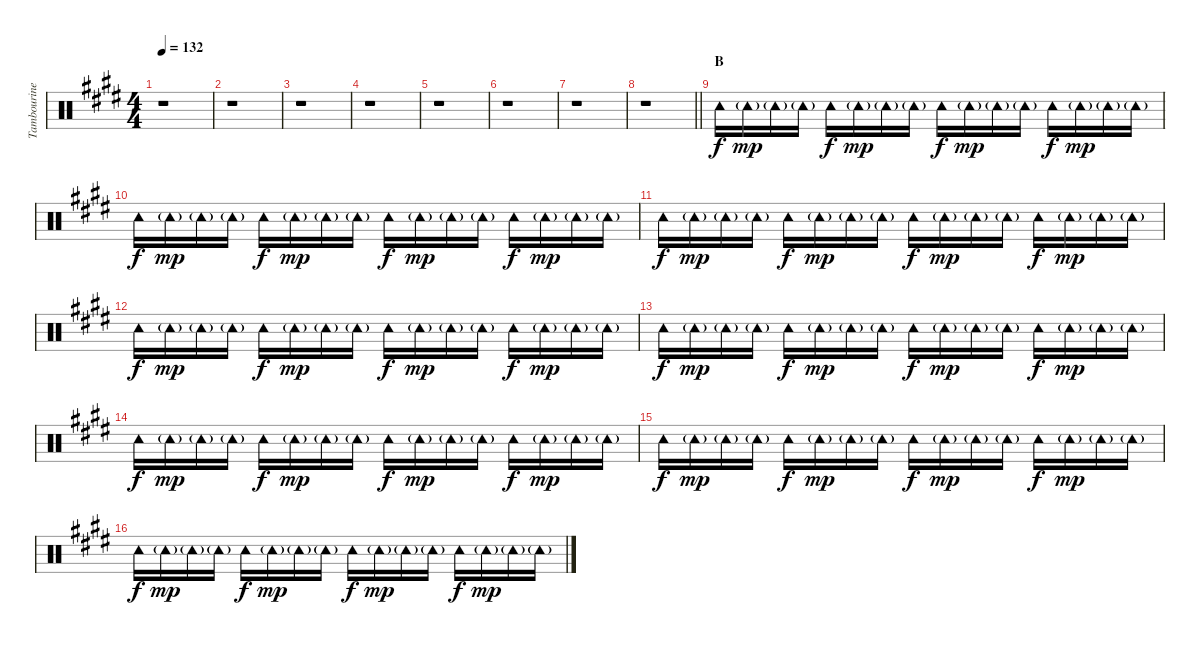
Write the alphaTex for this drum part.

\track ("Tambourine" "Tambourine") {instrument percussion}
\staff {score}
\articulation defaults
\ts (4 4)
\tempo 132
\clef neutral
\ks e
r.1{dy f} |
r.1 |
r.1 |
r.1 |
r.1 |
r.1 |
r.1 |
\barLineRight lightlight
r.1 |
\section ("" "B")
"Tambourine (hit)".16 "Tambourine (hit)"{g}.16{dy mp} "Tambourine (hit)"{g}.16 "Tambourine (hit)"{g}.16 "Tambourine (hit)".16{dy f} "Tambourine (hit)"{g}.16{dy mp} "Tambourine (hit)"{g}.16 "Tambourine (hit)"{g}.16 "Tambourine (hit)".16{dy f} "Tambourine (hit)"{g}.16{dy mp} "Tambourine (hit)"{g}.16 "Tambourine (hit)"{g}.16 "Tambourine (hit)".16{dy f} "Tambourine (hit)"{g}.16{dy mp} "Tambourine (hit)"{g}.16 "Tambourine (hit)"{g}.16 |
"Tambourine (hit)".16{dy f} "Tambourine (hit)"{g}.16{dy mp} "Tambourine (hit)"{g}.16 "Tambourine (hit)"{g}.16 "Tambourine (hit)".16{dy f} "Tambourine (hit)"{g}.16{dy mp} "Tambourine (hit)"{g}.16 "Tambourine (hit)"{g}.16 "Tambourine (hit)".16{dy f} "Tambourine (hit)"{g}.16{dy mp} "Tambourine (hit)"{g}.16 "Tambourine (hit)"{g}.16 "Tambourine (hit)".16{dy f} "Tambourine (hit)"{g}.16{dy mp} "Tambourine (hit)"{g}.16 "Tambourine (hit)"{g}.16 |
"Tambourine (hit)".16{dy f} "Tambourine (hit)"{g}.16{dy mp} "Tambourine (hit)"{g}.16 "Tambourine (hit)"{g}.16 "Tambourine (hit)".16{dy f} "Tambourine (hit)"{g}.16{dy mp} "Tambourine (hit)"{g}.16 "Tambourine (hit)"{g}.16 "Tambourine (hit)".16{dy f} "Tambourine (hit)"{g}.16{dy mp} "Tambourine (hit)"{g}.16 "Tambourine (hit)"{g}.16 "Tambourine (hit)".16{dy f} "Tambourine (hit)"{g}.16{dy mp} "Tambourine (hit)"{g}.16 "Tambourine (hit)"{g}.16 |
"Tambourine (hit)".16{dy f} "Tambourine (hit)"{g}.16{dy mp} "Tambourine (hit)"{g}.16 "Tambourine (hit)"{g}.16 "Tambourine (hit)".16{dy f} "Tambourine (hit)"{g}.16{dy mp} "Tambourine (hit)"{g}.16 "Tambourine (hit)"{g}.16 "Tambourine (hit)".16{dy f} "Tambourine (hit)"{g}.16{dy mp} "Tambourine (hit)"{g}.16 "Tambourine (hit)"{g}.16 "Tambourine (hit)".16{dy f} "Tambourine (hit)"{g}.16{dy mp} "Tambourine (hit)"{g}.16 "Tambourine (hit)"{g}.16 |
"Tambourine (hit)".16{dy f} "Tambourine (hit)"{g}.16{dy mp} "Tambourine (hit)"{g}.16 "Tambourine (hit)"{g}.16 "Tambourine (hit)".16{dy f} "Tambourine (hit)"{g}.16{dy mp} "Tambourine (hit)"{g}.16 "Tambourine (hit)"{g}.16 "Tambourine (hit)".16{dy f} "Tambourine (hit)"{g}.16{dy mp} "Tambourine (hit)"{g}.16 "Tambourine (hit)"{g}.16 "Tambourine (hit)".16{dy f} "Tambourine (hit)"{g}.16{dy mp} "Tambourine (hit)"{g}.16 "Tambourine (hit)"{g}.16 |
"Tambourine (hit)".16{dy f} "Tambourine (hit)"{g}.16{dy mp} "Tambourine (hit)"{g}.16 "Tambourine (hit)"{g}.16 "Tambourine (hit)".16{dy f} "Tambourine (hit)"{g}.16{dy mp} "Tambourine (hit)"{g}.16 "Tambourine (hit)"{g}.16 "Tambourine (hit)".16{dy f} "Tambourine (hit)"{g}.16{dy mp} "Tambourine (hit)"{g}.16 "Tambourine (hit)"{g}.16 "Tambourine (hit)".16{dy f} "Tambourine (hit)"{g}.16{dy mp} "Tambourine (hit)"{g}.16 "Tambourine (hit)"{g}.16 |
"Tambourine (hit)".16{dy f} "Tambourine (hit)"{g}.16{dy mp} "Tambourine (hit)"{g}.16 "Tambourine (hit)"{g}.16 "Tambourine (hit)".16{dy f} "Tambourine (hit)"{g}.16{dy mp} "Tambourine (hit)"{g}.16 "Tambourine (hit)"{g}.16 "Tambourine (hit)".16{dy f} "Tambourine (hit)"{g}.16{dy mp} "Tambourine (hit)"{g}.16 "Tambourine (hit)"{g}.16 "Tambourine (hit)".16{dy f} "Tambourine (hit)"{g}.16{dy mp} "Tambourine (hit)"{g}.16 "Tambourine (hit)"{g}.16 |
"Tambourine (hit)".16{dy f} "Tambourine (hit)"{g}.16{dy mp} "Tambourine (hit)"{g}.16 "Tambourine (hit)"{g}.16 "Tambourine (hit)".16{dy f} "Tambourine (hit)"{g}.16{dy mp} "Tambourine (hit)"{g}.16 "Tambourine (hit)"{g}.16 "Tambourine (hit)".16{dy f} "Tambourine (hit)"{g}.16{dy mp} "Tambourine (hit)"{g}.16 "Tambourine (hit)"{g}.16 "Tambourine (hit)".16{dy f} "Tambourine (hit)"{g}.16{dy mp} "Tambourine (hit)"{g}.16 "Tambourine (hit)"{g}.16
